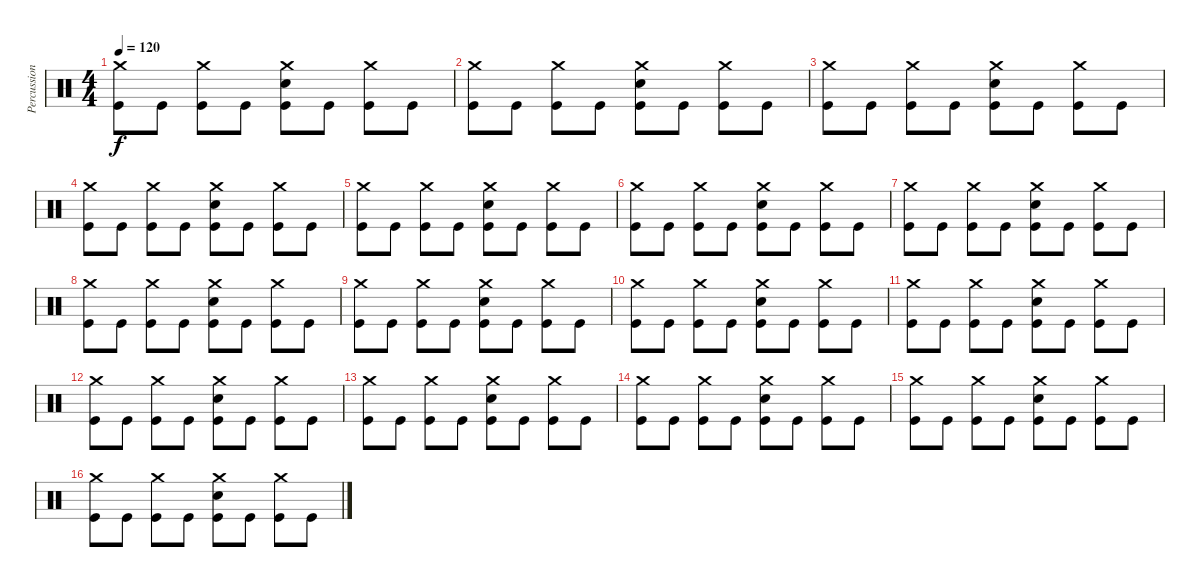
\track ("Percussion" "Percussion") {instrument percussion}
\staff {score}
\articulation defaults
\ts (4 4)
\tempo 120
\clef neutral
\ks c
("Crash medium (hit)" "Kick (hit)").8{dy f} "Kick (hit)".8 ("Crash medium (hit)" "Kick (hit)").8 "Kick (hit)".8 ("Crash medium (hit)" "Snare (hit) 2" "Kick (hit)").8 "Kick (hit)".8 ("Crash medium (hit)" "Kick (hit)").8 "Kick (hit)".8 |
("Crash medium (hit)" "Kick (hit)").8 "Kick (hit)".8 ("Crash medium (hit)" "Kick (hit)").8 "Kick (hit)".8 ("Crash medium (hit)" "Snare (hit) 2" "Kick (hit)").8 "Kick (hit)".8 ("Crash medium (hit)" "Kick (hit)").8 "Kick (hit)".8 |
("Crash medium (hit)" "Kick (hit)").8 "Kick (hit)".8 ("Crash medium (hit)" "Kick (hit)").8 "Kick (hit)".8 ("Crash medium (hit)" "Snare (hit) 2" "Kick (hit)").8 "Kick (hit)".8 ("Crash medium (hit)" "Kick (hit)").8 "Kick (hit)".8 |
("Crash medium (hit)" "Kick (hit)").8 "Kick (hit)".8 ("Crash medium (hit)" "Kick (hit)").8 "Kick (hit)".8 ("Crash medium (hit)" "Snare (hit) 2" "Kick (hit)").8 "Kick (hit)".8 ("Crash medium (hit)" "Kick (hit)").8 "Kick (hit)".8 |
("Crash medium (hit)" "Kick (hit)").8 "Kick (hit)".8 ("Crash medium (hit)" "Kick (hit)").8 "Kick (hit)".8 ("Crash medium (hit)" "Snare (hit) 2" "Kick (hit)").8 "Kick (hit)".8 ("Crash medium (hit)" "Kick (hit)").8 "Kick (hit)".8 |
("Crash medium (hit)" "Kick (hit)").8 "Kick (hit)".8 ("Crash medium (hit)" "Kick (hit)").8 "Kick (hit)".8 ("Crash medium (hit)" "Snare (hit) 2" "Kick (hit)").8 "Kick (hit)".8 ("Crash medium (hit)" "Kick (hit)").8 "Kick (hit)".8 |
("Crash medium (hit)" "Kick (hit)").8 "Kick (hit)".8 ("Crash medium (hit)" "Kick (hit)").8 "Kick (hit)".8 ("Crash medium (hit)" "Snare (hit) 2" "Kick (hit)").8 "Kick (hit)".8 ("Crash medium (hit)" "Kick (hit)").8 "Kick (hit)".8 |
("Crash medium (hit)" "Kick (hit)").8 "Kick (hit)".8 ("Crash medium (hit)" "Kick (hit)").8 "Kick (hit)".8 ("Crash medium (hit)" "Snare (hit) 2" "Kick (hit)").8 "Kick (hit)".8 ("Crash medium (hit)" "Kick (hit)").8 "Kick (hit)".8 |
("Crash medium (hit)" "Kick (hit)").8 "Kick (hit)".8 ("Crash medium (hit)" "Kick (hit)").8 "Kick (hit)".8 ("Crash medium (hit)" "Snare (hit) 2" "Kick (hit)").8 "Kick (hit)".8 ("Crash medium (hit)" "Kick (hit)").8 "Kick (hit)".8 |
("Crash medium (hit)" "Kick (hit)").8 "Kick (hit)".8 ("Crash medium (hit)" "Kick (hit)").8 "Kick (hit)".8 ("Crash medium (hit)" "Snare (hit) 2" "Kick (hit)").8 "Kick (hit)".8 ("Crash medium (hit)" "Kick (hit)").8 "Kick (hit)".8 |
("Crash medium (hit)" "Kick (hit)").8 "Kick (hit)".8 ("Crash medium (hit)" "Kick (hit)").8 "Kick (hit)".8 ("Crash medium (hit)" "Snare (hit) 2" "Kick (hit)").8 "Kick (hit)".8 ("Crash medium (hit)" "Kick (hit)").8 "Kick (hit)".8 |
("Crash medium (hit)" "Kick (hit)").8 "Kick (hit)".8 ("Crash medium (hit)" "Kick (hit)").8 "Kick (hit)".8 ("Crash medium (hit)" "Snare (hit) 2" "Kick (hit)").8 "Kick (hit)".8 ("Crash medium (hit)" "Kick (hit)").8 "Kick (hit)".8 |
("Crash medium (hit)" "Kick (hit)").8 "Kick (hit)".8 ("Crash medium (hit)" "Kick (hit)").8 "Kick (hit)".8 ("Crash medium (hit)" "Snare (hit) 2" "Kick (hit)").8 "Kick (hit)".8 ("Crash medium (hit)" "Kick (hit)").8 "Kick (hit)".8 |
("Crash medium (hit)" "Kick (hit)").8 "Kick (hit)".8 ("Crash medium (hit)" "Kick (hit)").8 "Kick (hit)".8 ("Crash medium (hit)" "Snare (hit) 2" "Kick (hit)").8 "Kick (hit)".8 ("Crash medium (hit)" "Kick (hit)").8 "Kick (hit)".8 |
("Crash medium (hit)" "Kick (hit)").8 "Kick (hit)".8 ("Crash medium (hit)" "Kick (hit)").8 "Kick (hit)".8 ("Crash medium (hit)" "Snare (hit) 2" "Kick (hit)").8 "Kick (hit)".8 ("Crash medium (hit)" "Kick (hit)").8 "Kick (hit)".8 |
("Crash medium (hit)" "Kick (hit)").8 "Kick (hit)".8 ("Crash medium (hit)" "Kick (hit)").8 "Kick (hit)".8 ("Crash medium (hit)" "Snare (hit) 2" "Kick (hit)").8 "Kick (hit)".8 ("Crash medium (hit)" "Kick (hit)").8 "Kick (hit)".8
